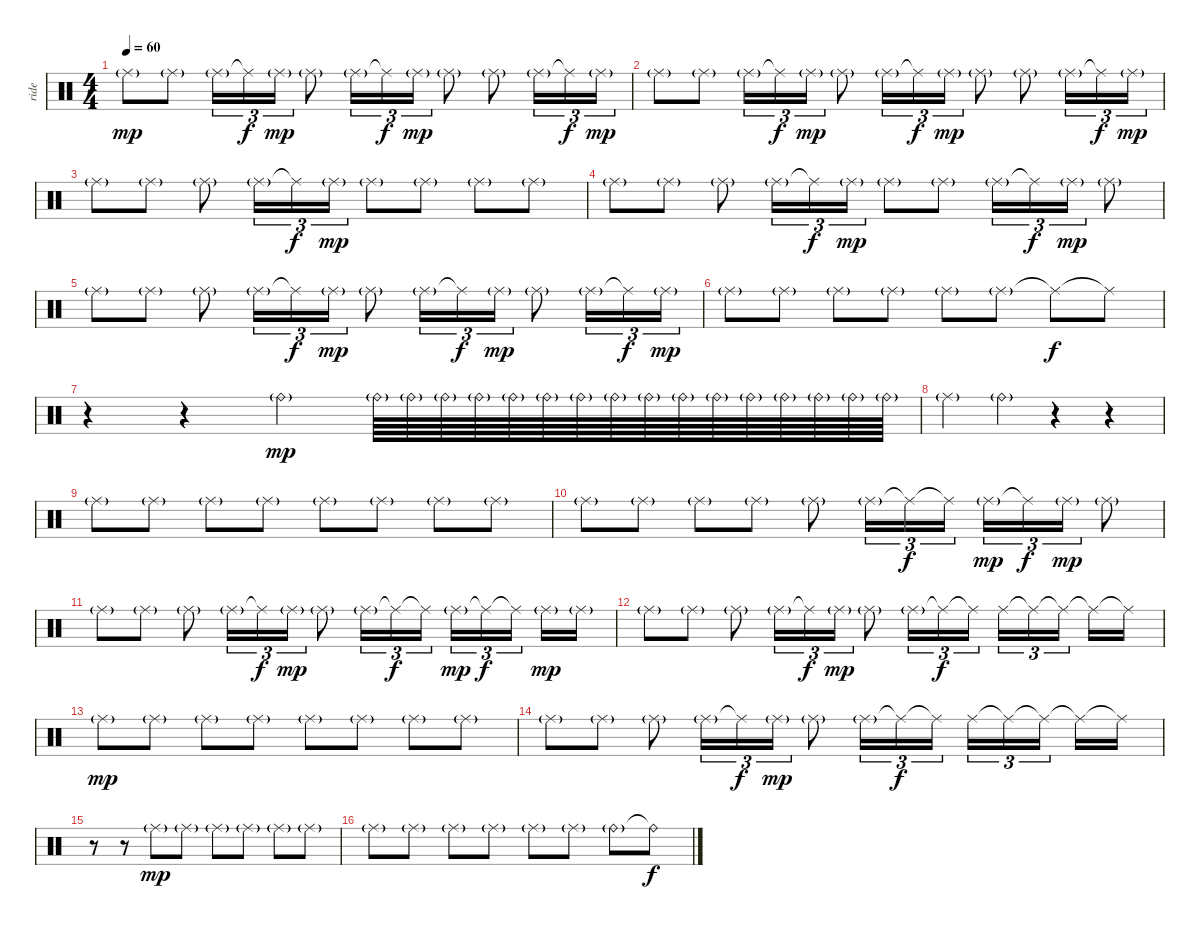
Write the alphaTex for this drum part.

\track ("ride" "ride") {instrument percussion}
\staff {score}
\articulation defaults
\ts (4 4)
\tempo 60
\clef neutral
\ks c "Ride (middle)"{g}.8{dy mp} "Ride (middle)"{g}.8 "Ride (middle)"{g}.16{tu (3 2)} "Ride (middle)"{t}.16{tu (3 2) dy f} "Ride (middle)"{g}.16{tu (3 2) dy mp} "Ride (middle)"{g}.8 "Ride (middle)"{g}.16{tu (3 2)} "Ride (middle)"{t}.16{tu (3 2) dy f} "Ride (middle)"{g}.16{tu (3 2) dy mp} "Ride (middle)"{g}.8 "Ride (middle)"{g}.8 "Ride (middle)"{g}.16{tu (3 2)} "Ride (middle)"{t}.16{tu (3 2) dy f} "Ride (middle)"{g}.16{tu (3 2) dy mp}
|
"Ride (middle)"{g}.8 "Ride (middle)"{g}.8 "Ride (middle)"{g}.16{tu (3 2)} "Ride (middle)"{t}.16{tu (3 2) dy f} "Ride (middle)"{g}.16{tu (3 2) dy mp} "Ride (middle)"{g}.8 "Ride (middle)"{g}.16{tu (3 2)} "Ride (middle)"{t}.16{tu (3 2) dy f} "Ride (middle)"{g}.16{tu (3 2) dy mp} "Ride (middle)"{g}.8 "Ride (middle)"{g}.8 "Ride (middle)"{g}.16{tu (3 2)} "Ride (middle)"{t}.16{tu (3 2) dy f} "Ride (middle)"{g}.16{tu (3 2) dy mp} |
"Ride (middle)"{g}.8 "Ride (middle)"{g}.8 "Ride (middle)"{g}.8 "Ride (middle)"{g}.16{tu (3 2)} "Ride (middle)"{t}.16{tu (3 2) dy f} "Ride (middle)"{g}.16{tu (3 2) dy mp} "Ride (middle)"{g}.8 "Ride (middle)"{g}.8 "Ride (middle)"{g}.8 "Ride (middle)"{g}.8 |
"Ride (middle)"{g}.8 "Ride (middle)"{g}.8 "Ride (middle)"{g}.8 "Ride (middle)"{g}.16{tu (3 2)} "Ride (middle)"{t}.16{tu (3 2) dy f} "Ride (middle)"{g}.16{tu (3 2) dy mp} "Ride (middle)"{g}.8 "Ride (middle)"{g}.8 "Ride (middle)"{g}.16{tu (3 2)} "Ride (middle)"{t}.16{tu (3 2) dy f} "Ride (middle)"{g}.16{tu (3 2) dy mp} "Ride (middle)"{g}.8 |
"Ride (middle)"{g}.8 "Ride (middle)"{g}.8 "Ride (middle)"{g}.8 "Ride (middle)"{g}.16{tu (3 2)} "Ride (middle)"{t}.16{tu (3 2) dy f} "Ride (middle)"{g}.16{tu (3 2) dy mp} "Ride (middle)"{g}.8 "Ride (middle)"{g}.16{tu (3 2)} "Ride (middle)"{t}.16{tu (3 2) dy f} "Ride (middle)"{g}.16{tu (3 2) dy mp} "Ride (middle)"{g}.8 "Ride (middle)"{g}.16{tu (3 2)} "Ride (middle)"{t}.16{tu (3 2) dy f} "Ride (middle)"{g}.16{tu (3 2) dy mp} |
"Ride (middle)"{g}.8 "Ride (middle)"{g}.8 "Ride (middle)"{g}.8 "Ride (middle)"{g}.8 "Ride (middle)"{g}.8 "Ride (middle)"{g}.8 "Ride (middle)"{t}.8{dy f} "Ride (middle)"{t}.8 |
r.4 r.4 "Ride (bell)"{g}.4{dy mp} "Ride (bell)"{g}.64 "Ride (bell)"{g}.64 "Ride (bell)"{g}.64 "Ride (bell)"{g}.64 "Ride (bell)"{g}.64 "Ride (bell)"{g}.64 "Ride (bell)"{g}.64 "Ride (bell)"{g}.64 "Ride (bell)"{g}.64 "Ride (bell)"{g}.64 "Ride (bell)"{g}.64 "Ride (bell)"{g}.64 "Ride (bell)"{g}.64 "Ride (bell)"{g}.64 "Ride (bell)"{g}.64 "Ride (bell)"{g}.64 |
"Ride (middle)"{g}.4 "Ride (bell)"{g}.4 r.4 r.4 |
"Ride (middle)"{g}.8 "Ride (middle)"{g}.8 "Ride (middle)"{g}.8 "Ride (middle)"{g}.8 "Ride (middle)"{g}.8 "Ride (middle)"{g}.8 "Ride (middle)"{g}.8 "Ride (middle)"{g}.8 |
"Ride (middle)"{g}.8 "Ride (middle)"{g}.8 "Ride (middle)"{g}.8 "Ride (middle)"{g}.8 "Ride (middle)"{g}.8 "Ride (middle)"{g}.16{tu (3 2)} "Ride (middle)"{t}.16{tu (3 2) dy f} "Ride (middle)"{t}.16{tu (3 2)} "Ride (middle)"{g}.16{tu (3 2) dy mp} "Ride (middle)"{t}.16{tu (3 2) dy f} "Ride (middle)"{g}.16{tu (3 2) dy mp} "Ride (middle)"{g}.8 |
"Ride (middle)"{g}.8 "Ride (middle)"{g}.8 "Ride (middle)"{g}.8 "Ride (middle)"{g}.16{tu (3 2)} "Ride (middle)"{t}.16{tu (3 2) dy f} "Ride (middle)"{g}.16{tu (3 2) dy mp} "Ride (middle)"{g}.8 "Ride (middle)"{g}.16{tu (3 2)} "Ride (middle)"{t}.16{tu (3 2) dy f} "Ride (middle)"{t}.16{tu (3 2)} "Ride (middle)"{g}.16{tu (3 2) dy mp} "Ride (middle)"{t}.16{tu (3 2) dy f} "Ride (middle)"{t}.16{tu (3 2)} "Ride (middle)"{g}.16{dy mp} "Ride (middle)"{g}.16 |
"Ride (middle)"{g}.8 "Ride (middle)"{g}.8 "Ride (middle)"{g}.8 "Ride (middle)"{g}.16{tu (3 2)} "Ride (middle)"{t}.16{tu (3 2) dy f} "Ride (middle)"{g}.16{tu (3 2) dy mp} "Ride (middle)"{g}.8 "Ride (middle)"{g}.16{tu (3 2)} "Ride (middle)"{t}.16{tu (3 2) dy f} "Ride (middle)"{t}.16{tu (3 2)} "Ride (middle)".16{tu (3 2)} "Ride (middle)"{t}.16{tu (3 2)} "Ride (middle)"{t}.16{tu (3 2)} "Ride (middle)"{t}.16 "Ride (middle)"{t}.16 |
"Ride (middle)"{g}.8{dy mp} "Ride (middle)"{g}.8 "Ride (middle)"{g}.8 "Ride (middle)"{g}.8 "Ride (middle)"{g}.8 "Ride (middle)"{g}.8 "Ride (middle)"{g}.8 "Ride (middle)"{g}.8 |
"Ride (middle)"{g}.8 "Ride (middle)"{g}.8 "Ride (middle)"{g}.8 "Ride (middle)"{g}.16{tu (3 2)} "Ride (middle)"{t}.16{tu (3 2) dy f} "Ride (middle)"{g}.16{tu (3 2) dy mp} "Ride (middle)"{g}.8 "Ride (middle)"{g}.16{tu (3 2)} "Ride (middle)"{t}.16{tu (3 2) dy f} "Ride (middle)"{t}.16{tu (3 2)} "Ride (middle)".16{tu (3 2)} "Ride (middle)"{t}.16{tu (3 2)} "Ride (middle)"{t}.16{tu (3 2)} "Ride (middle)"{t}.16 "Ride (middle)"{t}.16 |
r.8 r.8 "Ride (middle)"{g}.8{dy mp} "Ride (middle)"{g}.8 "Ride (middle)"{g}.8 "Ride (middle)"{g}.8 "Ride (middle)"{g}.8 "Ride (middle)"{g}.8 |
"Ride (middle)"{g}.8 "Ride (middle)"{g}.8 "Ride (middle)"{g}.8 "Ride (middle)"{g}.8 "Ride (middle)"{g}.8 "Ride (middle)"{g}.8 "Ride (bell)"{g}.8 "Ride (bell)"{t}.8{dy f}
